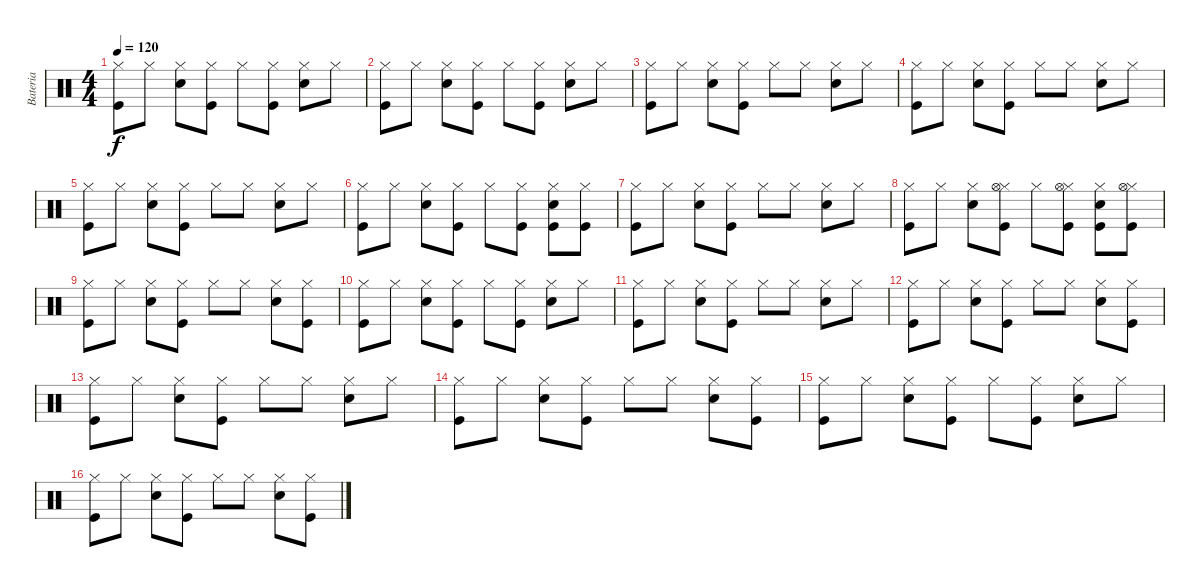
\track ("Bateria" "Bateria") {instrument percussion}
\staff {score}
\articulation defaults
\ts (4 4)
\tempo 120
\clef neutral
\ks c
("Hi-Hat (closed)" "Kick (hit)").8{dy f} "Hi-Hat (closed)".8 ("Hi-Hat (closed)" "Electric Snare (hit)").8 ("Hi-Hat (closed)" "Kick (hit)").8 "Hi-Hat (closed)".8 ("Hi-Hat (closed)" "Kick (hit)").8 ("Hi-Hat (closed)" "Electric Snare (hit)").8 "Hi-Hat (closed)".8 |
("Hi-Hat (closed)" "Kick (hit)").8 "Hi-Hat (closed)".8 ("Hi-Hat (closed)" "Electric Snare (hit)").8 ("Hi-Hat (closed)" "Kick (hit)").8 "Hi-Hat (closed)".8 ("Hi-Hat (closed)" "Kick (hit)").8 ("Hi-Hat (closed)" "Electric Snare (hit)").8 "Hi-Hat (closed)".8 |
("Hi-Hat (closed)" "Kick (hit)").8 "Hi-Hat (closed)".8 ("Hi-Hat (closed)" "Electric Snare (hit)").8 ("Hi-Hat (closed)" "Kick (hit)").8 "Hi-Hat (closed)".8 "Hi-Hat (closed)".8 ("Hi-Hat (closed)" "Electric Snare (hit)").8 "Hi-Hat (closed)".8 |
("Hi-Hat (closed)" "Kick (hit)").8 "Hi-Hat (closed)".8 ("Hi-Hat (closed)" "Electric Snare (hit)").8 ("Hi-Hat (closed)" "Kick (hit)").8 "Hi-Hat (closed)".8 "Hi-Hat (closed)".8 ("Hi-Hat (closed)" "Electric Snare (hit)").8 "Hi-Hat (closed)".8 |
("Hi-Hat (closed)" "Kick (hit)").8 "Hi-Hat (closed)".8 ("Hi-Hat (closed)" "Electric Snare (hit)").8 ("Hi-Hat (closed)" "Kick (hit)").8 "Hi-Hat (closed)".8 "Hi-Hat (closed)".8 ("Hi-Hat (closed)" "Electric Snare (hit)").8 "Hi-Hat (closed)".8 |
("Hi-Hat (closed)" "Kick (hit)").8 "Hi-Hat (closed)".8 ("Hi-Hat (closed)" "Electric Snare (hit)").8 ("Hi-Hat (closed)" "Kick (hit)").8 "Hi-Hat (closed)".8 ("Hi-Hat (closed)" "Kick (hit)").8 ("Hi-Hat (closed)" "Electric Snare (hit)" "Kick (hit)").8 ("Hi-Hat (closed)" "Kick (hit)").8 |
("Hi-Hat (closed)" "Kick (hit)").8 "Hi-Hat (closed)".8 ("Hi-Hat (closed)" "Electric Snare (hit)").8 ("Hi-Hat (closed)" "Kick (hit)").8 "Hi-Hat (closed)".8 "Hi-Hat (closed)".8 ("Hi-Hat (closed)" "Electric Snare (hit)").8 "Hi-Hat (closed)".8 |
("Hi-Hat (closed)" "Kick (hit)").8 "Hi-Hat (closed)".8 ("Hi-Hat (closed)" "Electric Snare (hit)").8 ("Hi-Hat (closed)" "Hi-Hat (open)" "Kick (hit)").8 "Hi-Hat (closed)".8 ("Hi-Hat (closed)" "Hi-Hat (open)" "Kick (hit)").8 ("Hi-Hat (closed)" "Electric Snare (hit)" "Kick (hit)").8 ("Hi-Hat (closed)" "Hi-Hat (open)" "Kick (hit)").8 |
("Hi-Hat (closed)" "Kick (hit)").8 "Hi-Hat (closed)".8 ("Hi-Hat (closed)" "Electric Snare (hit)").8 ("Hi-Hat (closed)" "Kick (hit)").8 "Hi-Hat (closed)".8 "Hi-Hat (closed)".8 ("Hi-Hat (closed)" "Electric Snare (hit)").8 ("Hi-Hat (closed)" "Kick (hit)").8 |
("Hi-Hat (closed)" "Kick (hit)").8 "Hi-Hat (closed)".8 ("Hi-Hat (closed)" "Electric Snare (hit)").8 ("Hi-Hat (closed)" "Kick (hit)").8 "Hi-Hat (closed)".8 ("Hi-Hat (closed)" "Kick (hit)").8 ("Hi-Hat (closed)" "Electric Snare (hit)").8 "Hi-Hat (closed)".8 |
("Hi-Hat (closed)" "Kick (hit)").8 "Hi-Hat (closed)".8 ("Hi-Hat (closed)" "Electric Snare (hit)").8 ("Hi-Hat (closed)" "Kick (hit)").8 "Hi-Hat (closed)".8 "Hi-Hat (closed)".8 ("Hi-Hat (closed)" "Electric Snare (hit)").8 "Hi-Hat (closed)".8 |
("Hi-Hat (closed)" "Kick (hit)").8 "Hi-Hat (closed)".8 ("Hi-Hat (closed)" "Electric Snare (hit)").8 ("Hi-Hat (closed)" "Kick (hit)").8 "Hi-Hat (closed)".8 "Hi-Hat (closed)".8 ("Hi-Hat (closed)" "Electric Snare (hit)").8 ("Hi-Hat (closed)" "Kick (hit)").8 |
("Hi-Hat (closed)" "Kick (hit)").8 "Hi-Hat (closed)".8 ("Hi-Hat (closed)" "Electric Snare (hit)").8 ("Hi-Hat (closed)" "Kick (hit)").8 "Hi-Hat (closed)".8 "Hi-Hat (closed)".8 ("Hi-Hat (closed)" "Electric Snare (hit)").8 "Hi-Hat (closed)".8 |
("Hi-Hat (closed)" "Kick (hit)").8 "Hi-Hat (closed)".8 ("Hi-Hat (closed)" "Electric Snare (hit)").8 ("Hi-Hat (closed)" "Kick (hit)").8 "Hi-Hat (closed)".8 "Hi-Hat (closed)".8 ("Hi-Hat (closed)" "Electric Snare (hit)").8 ("Hi-Hat (closed)" "Kick (hit)").8 |
("Hi-Hat (closed)" "Kick (hit)").8 "Hi-Hat (closed)".8 ("Hi-Hat (closed)" "Electric Snare (hit)").8 ("Hi-Hat (closed)" "Kick (hit)").8 "Hi-Hat (closed)".8 ("Hi-Hat (closed)" "Kick (hit)").8 ("Hi-Hat (closed)" "Electric Snare (hit)").8 "Hi-Hat (closed)".8 |
("Hi-Hat (closed)" "Kick (hit)").8 "Hi-Hat (closed)".8 ("Hi-Hat (closed)" "Electric Snare (hit)").8 ("Hi-Hat (closed)" "Kick (hit)").8 "Hi-Hat (closed)".8 "Hi-Hat (closed)".8 ("Hi-Hat (closed)" "Electric Snare (hit)").8 ("Hi-Hat (closed)" "Kick (hit)").8
